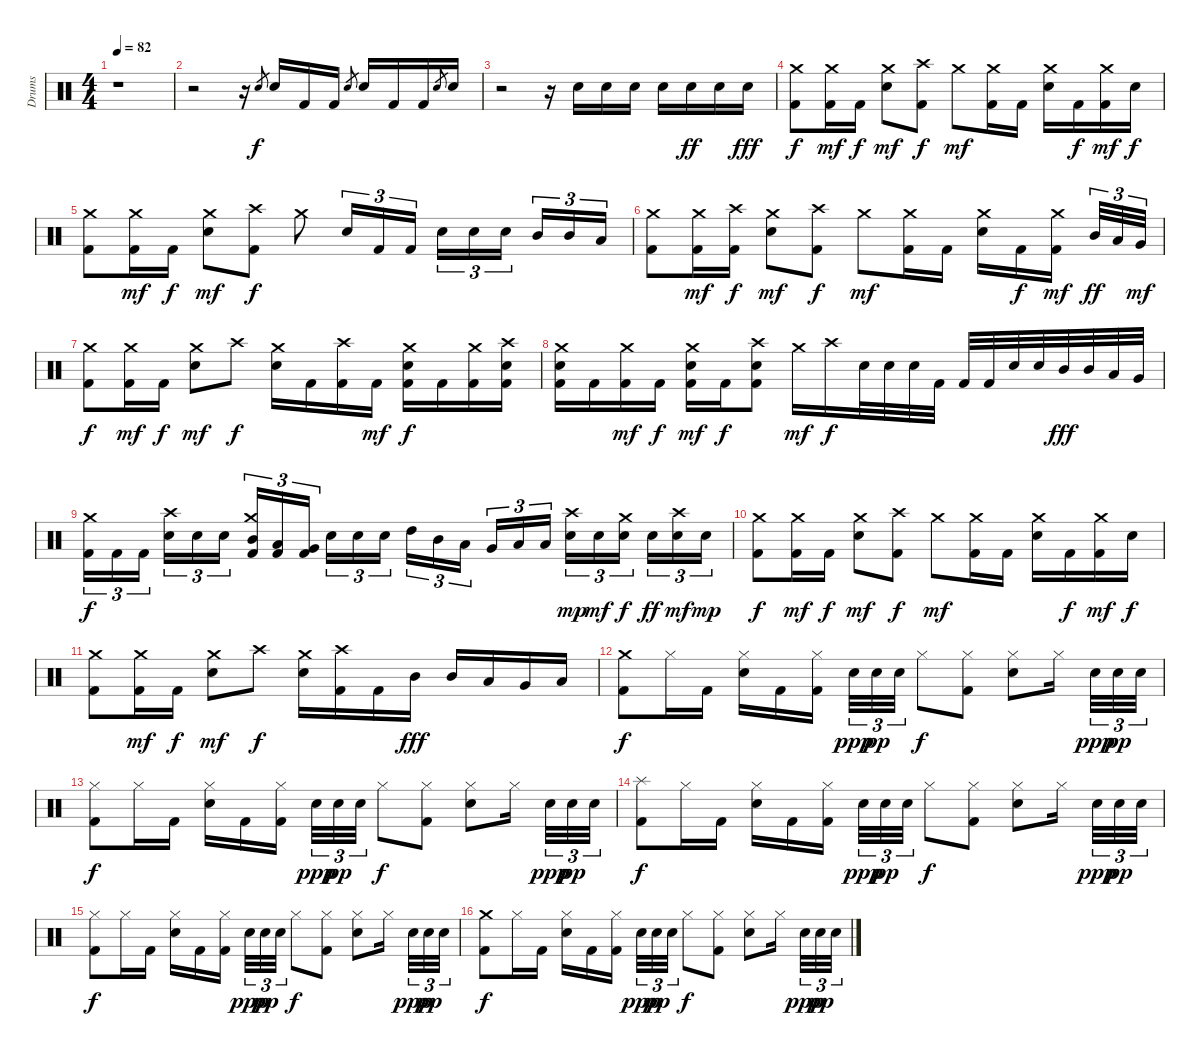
\track ("Drums" "Drums") {instrument percussion}
\staff {score}
\articulation defaults
\ts (4 4)
\tempo 82
\clef neutral
\ks c
r.1{dy f} |
r.2 r.16 "Snare (hit) 2".8{gr} "Snare (hit) 2".16{volume 16} "Kick (hit) 2".16 "Kick (hit) 2".16 "Snare (hit) 2".8{gr} "Snare (hit) 2".16 "Kick (hit) 2".16 "Kick (hit) 2".16 "Snare (hit) 2".8{gr} "Snare (hit) 2".16 |
r.2 r.16 "Snare (hit) 2".16{volume 13} "Snare (hit) 2".16 "Snare (hit) 2".16 "Snare (hit) 2".16 "Snare (hit) 2".16{dy ff} "Snare (hit) 2".16 "Snare (hit) 2".16{dy fff} |
("Crash medium (hit)" "Kick (hit) 2").8{dy f volume 13} ("Crash medium (hit)" "Kick (hit) 2").16{dy mf} "Kick (hit) 2".16{dy f} ("Crash medium (hit)" "Snare (hit) 2").8{dy mf} ("Crash high (hit)" "Kick (hit) 2").8{dy f} "Crash medium (hit)".8{dy mf} ("Crash medium (hit)" "Kick (hit) 2").16 "Kick (hit) 2".16 ("Crash medium (hit)" "Snare (hit) 2").16 "Kick (hit) 2".16{dy f} ("Crash medium (hit)" "Kick (hit) 2").16{dy mf} "Snare (hit) 2".16{dy f} |
("Crash medium (hit)" "Kick (hit) 2").8{volume 13} ("Crash medium (hit)" "Kick (hit) 2").16{dy mf} "Kick (hit) 2".16{dy f} ("Crash medium (hit)" "Snare (hit) 2").8{dy mf} ("Crash high (hit)" "Kick (hit) 2").8{dy f} "Crash medium (hit)".8 "Snare (hit) 2".16{tu (3 2)} "Kick (hit) 2".16{tu (3 2)} "Kick (hit) 2".16{tu (3 2)} "Snare (hit) 2".16{tu (3 2)} "Snare (hit) 2".16{tu (3 2)} "Snare (hit) 2".16{tu (3 2)} "Mid Tom (hit)".16{tu (3 2)} "Mid Tom (hit)".16{tu (3 2)} "Low Tom (hit)".16{tu (3 2)} |
("Crash medium (hit)" "Kick (hit) 2").8{volume 13} ("Crash medium (hit)" "Kick (hit) 2").16{dy mf} ("Crash high (hit)" "Kick (hit) 2").16{dy f} ("Crash medium (hit)" "Snare (hit) 2").8{dy mf} ("Crash high (hit)" "Kick (hit) 2").8{dy f} "Crash medium (hit)".8{dy mf} ("Crash medium (hit)" "Kick (hit) 2").16 "Kick (hit) 2".16 ("Crash medium (hit)" "Snare (hit) 2").16 "Kick (hit) 2".16{dy f} ("Crash medium (hit)" "Kick (hit) 2").16{dy mf} "Mid Tom (hit)".32{tu (3 2) dy ff} "Low Tom (hit)".32{tu (3 2)} "Very Low Tom (hit)".32{tu (3 2) dy mf} |
("Crash medium (hit)" "Kick (hit) 2").8{dy f volume 13} ("Crash medium (hit)" "Kick (hit) 2").16{dy mf} "Kick (hit) 2".16{dy f} ("Crash medium (hit)" "Snare (hit) 2").8{dy mf} "Crash high (hit)".8{dy f} ("Crash medium (hit)" "Snare (hit) 2").16 "Kick (hit) 2".16 ("Crash high (hit)" "Kick (hit) 2").16 "Kick (hit) 2".16{dy mf} ("Crash medium (hit)" "Snare (hit) 2" "Kick (hit) 2").16{dy f} "Kick (hit) 2".16 ("Crash medium (hit)" "Kick (hit) 2").16 ("Crash high (hit)" "Snare (hit) 2" "Kick (hit) 2").16 |
("Crash medium (hit)" "Snare (hit) 2" "Kick (hit) 2").16{volume 13} "Kick (hit) 2".16 ("Crash medium (hit)" "Kick (hit) 2").16{dy mf} "Kick (hit) 2".16{dy f} ("Crash medium (hit)" "Snare (hit) 2" "Kick (hit) 2").16{dy mf} "Kick (hit) 2".16{dy f} ("Crash high (hit)" "Snare (hit) 2" "Kick (hit) 2").8 "Crash medium (hit)".16{dy mf} "Crash high (hit)".16{dy f} "Snare (hit) 2".32 "Snare (hit) 2".32 "Snare (hit) 2".32 "Kick (hit) 2".32 "Kick (hit) 2".32 "Kick (hit) 2".32 "Snare (hit) 2".32 "Snare (hit) 2".32 "Mid Tom (hit)".32{dy fff} "Mid Tom (hit)".32 "Low Tom (hit)".32 "Very Low Tom (hit)".32 |
("Crash medium (hit)" "Kick (hit) 2").16{tu (3 2) dy f} "Kick (hit) 2".16{tu (3 2)} "Kick (hit) 2".16{tu (3 2)} ("Crash high (hit)" "Snare (hit) 2").16{tu (3 2)} "Snare (hit) 2".16{tu (3 2)} "Snare (hit) 2".16{tu (3 2)} ("Crash medium (hit)" "Mid Tom (hit)" "Kick (hit) 2").16{tu (3 2)} ("Low Tom (hit)" "Kick (hit) 2").16{tu (3 2)} ("Very Low Tom (hit)" "Kick (hit) 2").16{tu (3 2)} "Snare (hit) 2".16{tu (3 2)} "Snare (hit) 2".16{tu (3 2)} "Snare (hit) 2".16{tu (3 2)} "High Tom (hit)".16{tu (3 2)} "Mid Tom (hit)".16{tu (3 2)} "Low Tom (hit)".16{tu (3 2)} "Very Low Tom (hit)".16{tu (3 2)} "Low Floor Tom (hit)".16{tu (3 2)} "Low Floor Tom (hit)".16{tu (3 2)} ("Crash high (hit)" "Snare (hit) 2").16{tu (3 2) dy mp} "Snare (hit) 2".16{tu (3 2) dy mf} ("Crash medium (hit)" "Snare (hit) 2").16{tu (3 2) dy f} "Snare (hit) 2".16{tu (3 2) dy ff} ("Crash high (hit)" "Snare (hit) 2").16{tu (3 2) dy mf} "Snare (hit) 2".16{tu (3 2) dy mp} |
("Crash medium (hit)" "Kick (hit) 2").8{dy f volume 13} ("Crash medium (hit)" "Kick (hit) 2").16{dy mf} "Kick (hit) 2".16{dy f} ("Crash medium (hit)" "Snare (hit) 2").8{dy mf} ("Crash high (hit)" "Kick (hit) 2").8{dy f} "Crash medium (hit)".8{dy mf} ("Crash medium (hit)" "Kick (hit) 2").16 "Kick (hit) 2".16 ("Crash medium (hit)" "Snare (hit) 2").16 "Kick (hit) 2".16{dy f} ("Crash medium (hit)" "Kick (hit) 2").16{dy mf} "Snare (hit) 2".16{dy f} |
("Crash medium (hit)" "Kick (hit) 2").8{volume 13} ("Crash medium (hit)" "Kick (hit) 2").16{dy mf} "Kick (hit) 2".16{dy f} ("Crash medium (hit)" "Snare (hit) 2").8{dy mf} "Crash high (hit)".8{dy f} ("Crash medium (hit)" "Snare (hit) 2").16 ("Crash high (hit)" "Kick (hit) 2").16 "Kick (hit) 2".16 "Mid Tom (hit)".16{dy fff} "Mid Tom (hit)".16 "Low Tom (hit)".16 "Very Low Tom (hit)".16 "Low Floor Tom (hit)".16 |
("Crash medium (hit)" "Kick (hit) 2").8{dy f} "Hi-Hat (closed)".16 "Kick (hit) 2".16 ("Hi-Hat (closed)" "Snare (hit) 2").16 "Kick (hit) 2".16 ("Hi-Hat (closed)" "Kick (hit) 2").16 "Snare (hit) 2".32{tu (3 2) dy ppp} "Snare (hit) 2".32{tu (3 2) dy pp} "Snare (hit) 2".32{tu (3 2)} "Hi-Hat (closed)".8{dy f} ("Hi-Hat (closed)" "Kick (hit) 2").8 ("Hi-Hat (closed)" "Snare (hit) 2").8 "Hi-Hat (closed)".16 "Snare (hit) 2".32{tu (3 2) dy ppp} "Snare (hit) 2".32{tu (3 2) dy pp} "Snare (hit) 2".32{tu (3 2)} |
("Hi-Hat (closed)" "Kick (hit) 2").8{dy f} "Hi-Hat (closed)".16 "Kick (hit) 2".16 ("Hi-Hat (closed)" "Snare (hit) 2").16 "Kick (hit) 2".16 ("Hi-Hat (closed)" "Kick (hit) 2").16 "Snare (hit) 2".32{tu (3 2) dy ppp} "Snare (hit) 2".32{tu (3 2) dy pp} "Snare (hit) 2".32{tu (3 2)} "Hi-Hat (closed)".8{dy f} ("Hi-Hat (closed)" "Kick (hit) 2").8 ("Hi-Hat (closed)" "Snare (hit) 2").8 "Hi-Hat (closed)".16 "Snare (hit) 2".32{tu (3 2) dy ppp} "Snare (hit) 2".32{tu (3 2) dy pp} "Snare (hit) 2".32{tu (3 2)} |
("Splash (hit)" "Kick (hit) 2").8{dy f} "Hi-Hat (closed)".16 "Kick (hit) 2".16 ("Hi-Hat (closed)" "Snare (hit) 2").16 "Kick (hit) 2".16 ("Hi-Hat (closed)" "Kick (hit) 2").16 "Snare (hit) 2".32{tu (3 2) dy ppp} "Snare (hit) 2".32{tu (3 2) dy pp} "Snare (hit) 2".32{tu (3 2)} "Hi-Hat (closed)".8{dy f} ("Hi-Hat (closed)" "Kick (hit) 2").8 ("Hi-Hat (closed)" "Snare (hit) 2").8 "Hi-Hat (closed)".16 "Snare (hit) 2".32{tu (3 2) dy ppp} "Snare (hit) 2".32{tu (3 2) dy pp} "Snare (hit) 2".32{tu (3 2)} |
("Hi-Hat (closed)" "Kick (hit) 2").8{dy f} "Hi-Hat (closed)".16 "Kick (hit) 2".16 ("Hi-Hat (closed)" "Snare (hit) 2").16 "Kick (hit) 2".16 ("Hi-Hat (closed)" "Kick (hit) 2").16 "Snare (hit) 2".32{tu (3 2) dy ppp} "Snare (hit) 2".32{tu (3 2) dy pp} "Snare (hit) 2".32{tu (3 2)} "Hi-Hat (closed)".8{dy f} ("Hi-Hat (closed)" "Kick (hit) 2").8 ("Hi-Hat (closed)" "Snare (hit) 2").8 "Hi-Hat (closed)".16 "Snare (hit) 2".32{tu (3 2) dy ppp} "Snare (hit) 2".32{tu (3 2) dy pp} "Snare (hit) 2".32{tu (3 2)} |
("Crash medium (hit)" "Kick (hit) 2").8{dy f} "Hi-Hat (closed)".16 "Kick (hit) 2".16 ("Hi-Hat (closed)" "Snare (hit) 2").16 "Kick (hit) 2".16 ("Hi-Hat (closed)" "Kick (hit) 2").16 "Snare (hit) 2".32{tu (3 2) dy ppp} "Snare (hit) 2".32{tu (3 2) dy pp} "Snare (hit) 2".32{tu (3 2)} "Hi-Hat (closed)".8{dy f} ("Hi-Hat (closed)" "Kick (hit) 2").8 ("Hi-Hat (closed)" "Snare (hit) 2").8 "Hi-Hat (closed)".16 "Snare (hit) 2".32{tu (3 2) dy ppp} "Snare (hit) 2".32{tu (3 2) dy pp} "Snare (hit) 2".32{tu (3 2)}
